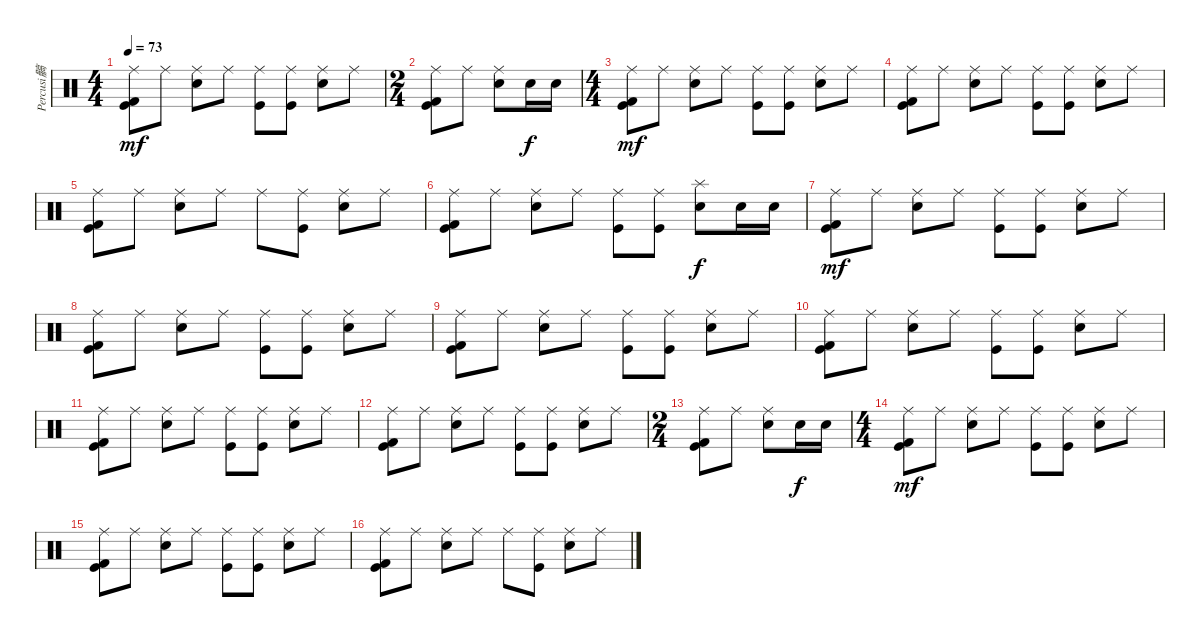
\track ("Percusi髇" "Percusi髇") {instrument percussion}
\staff {score}
\articulation defaults
\ts (4 4)
\tempo 73
\clef neutral
\ks c
("Ride (middle)" "Kick (hit) 2" "Kick (hit)").8{dy mf} "Ride (middle)".8 ("Ride (middle)" "Electric Snare (hit)").8 "Ride (middle)".8 ("Ride (middle)" "Kick (hit)").8 ("Ride (middle)" "Kick (hit)").8 ("Ride (middle)" "Electric Snare (hit)").8 "Ride (middle)".8 |
\ts (2 4)
("Ride (middle)" "Kick (hit) 2" "Kick (hit)").8 "Ride (middle)".8 ("Ride (middle)" "Electric Snare (hit)").8 "Electric Snare (hit)".16{dy f} "Electric Snare (hit)".16 |
\ts (4 4)
("Ride (middle)" "Kick (hit) 2" "Kick (hit)").8{dy mf} "Ride (middle)".8 ("Ride (middle)" "Electric Snare (hit)").8 "Ride (middle)".8 ("Ride (middle)" "Kick (hit)").8 ("Ride (middle)" "Kick (hit)").8 ("Ride (middle)" "Electric Snare (hit)").8 "Ride (middle)".8 |
("Ride (middle)" "Kick (hit) 2" "Kick (hit)").8 "Ride (middle)".8 ("Ride (middle)" "Electric Snare (hit)").8 "Ride (middle)".8 ("Ride (middle)" "Kick (hit)").8 ("Ride (middle)" "Kick (hit)").8 ("Ride (middle)" "Electric Snare (hit)").8 "Ride (middle)".8 |
("Ride (middle)" "Kick (hit) 2" "Kick (hit)").8 "Ride (middle)".8 ("Ride (middle)" "Electric Snare (hit)").8 "Ride (middle)".8 "Ride (middle)".8 ("Ride (middle)" "Kick (hit)").8 ("Ride (middle)" "Electric Snare (hit)").8 "Ride (middle)".8 |
("Ride (middle)" "Kick (hit) 2" "Kick (hit)").8 "Ride (middle)".8 ("Ride (middle)" "Electric Snare (hit)").8 "Ride (middle)".8 ("Ride (middle)" "Kick (hit)").8 ("Ride (middle)" "Kick (hit)").8 ("Splash (hit)" "Electric Snare (hit)").8{dy f} "Electric Snare (hit)".16 "Electric Snare (hit)".16 |
("Ride (middle)" "Kick (hit) 2" "Kick (hit)").8{dy mf} "Ride (middle)".8 ("Ride (middle)" "Electric Snare (hit)").8 "Ride (middle)".8 ("Ride (middle)" "Kick (hit)").8 ("Ride (middle)" "Kick (hit)").8 ("Ride (middle)" "Electric Snare (hit)").8 "Ride (middle)".8 |
("Ride (middle)" "Kick (hit) 2" "Kick (hit)").8 "Ride (middle)".8 ("Ride (middle)" "Electric Snare (hit)").8 "Ride (middle)".8 ("Ride (middle)" "Kick (hit)").8 ("Ride (middle)" "Kick (hit)").8 ("Ride (middle)" "Electric Snare (hit)").8 "Ride (middle)".8 |
("Ride (middle)" "Kick (hit) 2" "Kick (hit)").8 "Ride (middle)".8 ("Ride (middle)" "Electric Snare (hit)").8 "Ride (middle)".8 ("Ride (middle)" "Kick (hit)").8 ("Ride (middle)" "Kick (hit)").8 ("Ride (middle)" "Electric Snare (hit)").8 "Ride (middle)".8 |
("Ride (middle)" "Kick (hit) 2" "Kick (hit)").8 "Ride (middle)".8 ("Ride (middle)" "Electric Snare (hit)").8 "Ride (middle)".8 ("Ride (middle)" "Kick (hit)").8 ("Ride (middle)" "Kick (hit)").8 ("Ride (middle)" "Electric Snare (hit)").8 "Ride (middle)".8 |
("Ride (middle)" "Kick (hit) 2" "Kick (hit)").8 "Ride (middle)".8 ("Ride (middle)" "Electric Snare (hit)").8 "Ride (middle)".8 ("Ride (middle)" "Kick (hit)").8 ("Ride (middle)" "Kick (hit)").8 ("Ride (middle)" "Electric Snare (hit)").8 "Ride (middle)".8 |
("Ride (middle)" "Kick (hit) 2" "Kick (hit)").8 "Ride (middle)".8 ("Ride (middle)" "Electric Snare (hit)").8 "Ride (middle)".8 ("Ride (middle)" "Kick (hit)").8 ("Ride (middle)" "Kick (hit)").8 ("Ride (middle)" "Electric Snare (hit)").8 "Ride (middle)".8 |
\ts (2 4)
("Ride (middle)" "Kick (hit) 2" "Kick (hit)").8 "Ride (middle)".8 ("Ride (middle)" "Electric Snare (hit)").8 "Electric Snare (hit)".16{dy f} "Electric Snare (hit)".16 |
\ts (4 4)
("Ride (middle)" "Kick (hit) 2" "Kick (hit)").8{dy mf} "Ride (middle)".8 ("Ride (middle)" "Electric Snare (hit)").8 "Ride (middle)".8 ("Ride (middle)" "Kick (hit)").8 ("Ride (middle)" "Kick (hit)").8 ("Ride (middle)" "Electric Snare (hit)").8 "Ride (middle)".8 |
("Ride (middle)" "Kick (hit) 2" "Kick (hit)").8 "Ride (middle)".8 ("Ride (middle)" "Electric Snare (hit)").8 "Ride (middle)".8 ("Ride (middle)" "Kick (hit)").8 ("Ride (middle)" "Kick (hit)").8 ("Ride (middle)" "Electric Snare (hit)").8 "Ride (middle)".8 |
("Ride (middle)" "Kick (hit) 2" "Kick (hit)").8 "Ride (middle)".8 ("Ride (middle)" "Electric Snare (hit)").8 "Ride (middle)".8 "Ride (middle)".8 ("Ride (middle)" "Kick (hit)").8 ("Ride (middle)" "Electric Snare (hit)").8 "Ride (middle)".8
